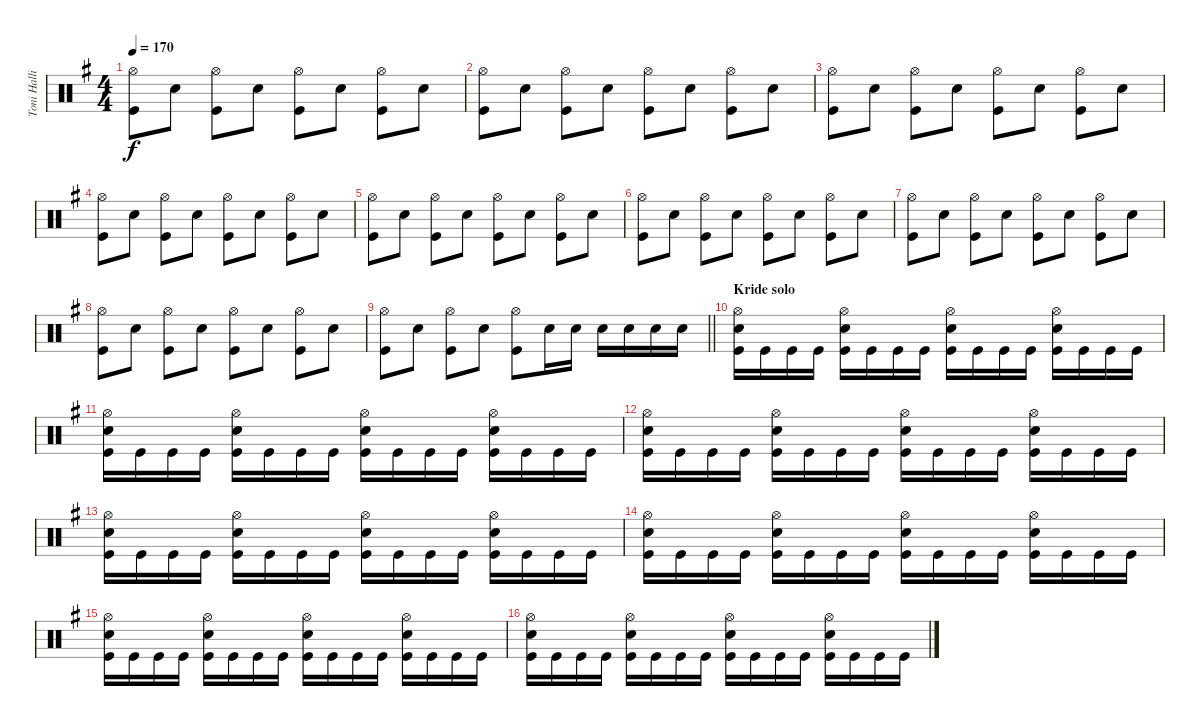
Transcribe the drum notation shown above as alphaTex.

\track ("Toni Hallio" "Toni Halli") {instrument percussion}
\staff {score}
\articulation defaults
\ts (4 4)
\tempo 170
\clef neutral
\ks g
("Hi-Hat (open)" "Kick (hit)").8{dy f} "Snare (hit) 2".8 ("Hi-Hat (open)" "Kick (hit)").8 "Snare (hit) 2".8 ("Hi-Hat (open)" "Kick (hit)").8 "Snare (hit) 2".8 ("Hi-Hat (open)" "Kick (hit)").8 "Snare (hit) 2".8 |
("Hi-Hat (open)" "Kick (hit)").8 "Snare (hit) 2".8 ("Hi-Hat (open)" "Kick (hit)").8 "Snare (hit) 2".8 ("Hi-Hat (open)" "Kick (hit)").8 "Snare (hit) 2".8 ("Hi-Hat (open)" "Kick (hit)").8 "Snare (hit) 2".8 |
("Hi-Hat (open)" "Kick (hit)").8 "Snare (hit) 2".8 ("Hi-Hat (open)" "Kick (hit)").8 "Snare (hit) 2".8 ("Hi-Hat (open)" "Kick (hit)").8 "Snare (hit) 2".8 ("Hi-Hat (open)" "Kick (hit)").8 "Snare (hit) 2".8 |
("Hi-Hat (open)" "Kick (hit)").8 "Snare (hit) 2".8 ("Hi-Hat (open)" "Kick (hit)").8 "Snare (hit) 2".8 ("Hi-Hat (open)" "Kick (hit)").8 "Snare (hit) 2".8 ("Hi-Hat (open)" "Kick (hit)").8 "Snare (hit) 2".8 |
("Hi-Hat (open)" "Kick (hit)").8 "Snare (hit) 2".8 ("Hi-Hat (open)" "Kick (hit)").8 "Snare (hit) 2".8 ("Hi-Hat (open)" "Kick (hit)").8 "Snare (hit) 2".8 ("Hi-Hat (open)" "Kick (hit)").8 "Snare (hit) 2".8 |
("Hi-Hat (open)" "Kick (hit)").8 "Snare (hit) 2".8 ("Hi-Hat (open)" "Kick (hit)").8 "Snare (hit) 2".8 ("Hi-Hat (open)" "Kick (hit)").8 "Snare (hit) 2".8 ("Hi-Hat (open)" "Kick (hit)").8 "Snare (hit) 2".8 |
("Hi-Hat (open)" "Kick (hit)").8 "Snare (hit) 2".8 ("Hi-Hat (open)" "Kick (hit)").8 "Snare (hit) 2".8 ("Hi-Hat (open)" "Kick (hit)").8 "Snare (hit) 2".8 ("Hi-Hat (open)" "Kick (hit)").8 "Snare (hit) 2".8 |
("Hi-Hat (open)" "Kick (hit)").8 "Snare (hit) 2".8 ("Hi-Hat (open)" "Kick (hit)").8 "Snare (hit) 2".8 ("Hi-Hat (open)" "Kick (hit)").8 "Snare (hit) 2".8 ("Hi-Hat (open)" "Kick (hit)").8 "Snare (hit) 2".8 |
\barLineRight lightlight
("Hi-Hat (open)" "Kick (hit)").8 "Snare (hit) 2".8 ("Hi-Hat (open)" "Kick (hit)").8 "Snare (hit) 2".8 ("Hi-Hat (open)" "Kick (hit)").8 "Snare (hit) 2".16 "Snare (hit) 2".16 "Snare (hit) 2".16 "Snare (hit) 2".16 "Snare (hit) 2".16 "Snare (hit) 2".16 |
\section ("" "Kride solo")
("Hi-Hat (open)" "Snare (hit) 2" "Kick (hit)").16 "Kick (hit)".16 "Kick (hit)".16 "Kick (hit)".16 ("Hi-Hat (open)" "Snare (hit) 2" "Kick (hit)").16 "Kick (hit)".16 "Kick (hit)".16 "Kick (hit)".16 ("Hi-Hat (open)" "Snare (hit) 2" "Kick (hit)").16 "Kick (hit)".16 "Kick (hit)".16 "Kick (hit)".16 ("Hi-Hat (open)" "Snare (hit) 2" "Kick (hit)").16 "Kick (hit)".16 "Kick (hit)".16 "Kick (hit)".16 |
("Hi-Hat (open)" "Snare (hit) 2" "Kick (hit)").16 "Kick (hit)".16 "Kick (hit)".16 "Kick (hit)".16 ("Hi-Hat (open)" "Snare (hit) 2" "Kick (hit)").16 "Kick (hit)".16 "Kick (hit)".16 "Kick (hit)".16 ("Hi-Hat (open)" "Snare (hit) 2" "Kick (hit)").16 "Kick (hit)".16 "Kick (hit)".16 "Kick (hit)".16 ("Hi-Hat (open)" "Snare (hit) 2" "Kick (hit)").16 "Kick (hit)".16 "Kick (hit)".16 "Kick (hit)".16 |
("Hi-Hat (open)" "Snare (hit) 2" "Kick (hit)").16 "Kick (hit)".16 "Kick (hit)".16 "Kick (hit)".16 ("Hi-Hat (open)" "Snare (hit) 2" "Kick (hit)").16 "Kick (hit)".16 "Kick (hit)".16 "Kick (hit)".16 ("Hi-Hat (open)" "Snare (hit) 2" "Kick (hit)").16 "Kick (hit)".16 "Kick (hit)".16 "Kick (hit)".16 ("Hi-Hat (open)" "Snare (hit) 2" "Kick (hit)").16 "Kick (hit)".16 "Kick (hit)".16 "Kick (hit)".16 |
("Hi-Hat (open)" "Snare (hit) 2" "Kick (hit)").16 "Kick (hit)".16 "Kick (hit)".16 "Kick (hit)".16 ("Hi-Hat (open)" "Snare (hit) 2" "Kick (hit)").16 "Kick (hit)".16 "Kick (hit)".16 "Kick (hit)".16 ("Hi-Hat (open)" "Snare (hit) 2" "Kick (hit)").16 "Kick (hit)".16 "Kick (hit)".16 "Kick (hit)".16 ("Hi-Hat (open)" "Snare (hit) 2" "Kick (hit)").16 "Kick (hit)".16 "Kick (hit)".16 "Kick (hit)".16 |
("Hi-Hat (open)" "Snare (hit) 2" "Kick (hit)").16 "Kick (hit)".16 "Kick (hit)".16 "Kick (hit)".16 ("Hi-Hat (open)" "Snare (hit) 2" "Kick (hit)").16 "Kick (hit)".16 "Kick (hit)".16 "Kick (hit)".16 ("Hi-Hat (open)" "Snare (hit) 2" "Kick (hit)").16 "Kick (hit)".16 "Kick (hit)".16 "Kick (hit)".16 ("Hi-Hat (open)" "Snare (hit) 2" "Kick (hit)").16 "Kick (hit)".16 "Kick (hit)".16 "Kick (hit)".16 |
("Hi-Hat (open)" "Snare (hit) 2" "Kick (hit)").16 "Kick (hit)".16 "Kick (hit)".16 "Kick (hit)".16 ("Hi-Hat (open)" "Snare (hit) 2" "Kick (hit)").16 "Kick (hit)".16 "Kick (hit)".16 "Kick (hit)".16 ("Hi-Hat (open)" "Snare (hit) 2" "Kick (hit)").16 "Kick (hit)".16 "Kick (hit)".16 "Kick (hit)".16 ("Hi-Hat (open)" "Snare (hit) 2" "Kick (hit)").16 "Kick (hit)".16 "Kick (hit)".16 "Kick (hit)".16 |
("Hi-Hat (open)" "Snare (hit) 2" "Kick (hit)").16 "Kick (hit)".16 "Kick (hit)".16 "Kick (hit)".16 ("Hi-Hat (open)" "Snare (hit) 2" "Kick (hit)").16 "Kick (hit)".16 "Kick (hit)".16 "Kick (hit)".16 ("Hi-Hat (open)" "Snare (hit) 2" "Kick (hit)").16 "Kick (hit)".16 "Kick (hit)".16 "Kick (hit)".16 ("Hi-Hat (open)" "Snare (hit) 2" "Kick (hit)").16 "Kick (hit)".16 "Kick (hit)".16 "Kick (hit)".16
